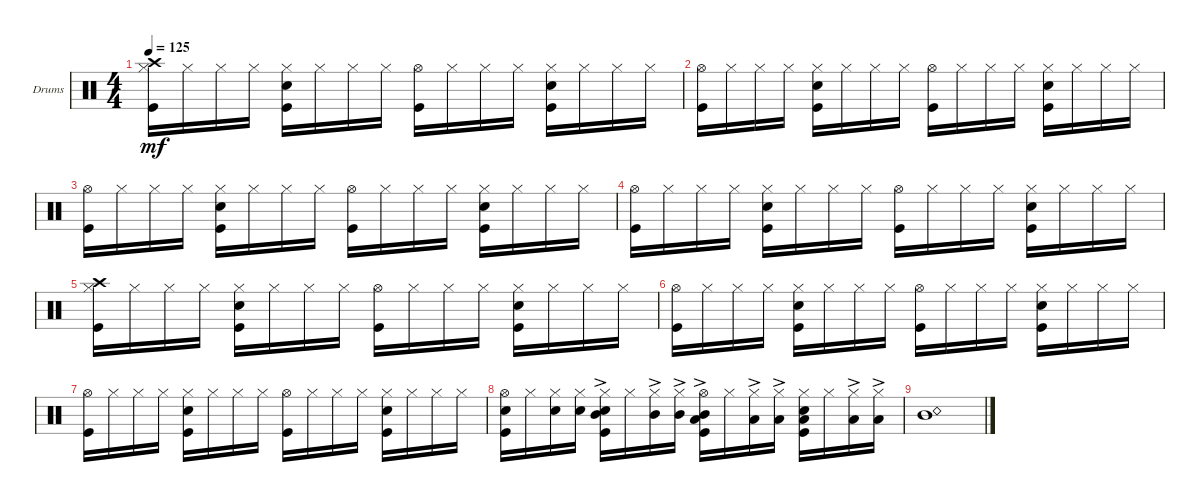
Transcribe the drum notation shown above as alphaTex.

\defaultSystemsLayout 4
\bracketExtendMode groupsimilarinstruments
\firstSystemTrackNameOrientation horizontal
\otherSystemsTrackNameOrientation horizontal
\track ("Drumkit" "Drums") {instrument percussion}
\staff {score}
\articulation defaults
\ts (4 4)
\tempo 125
\clef neutral
\ks c
("Hi-Hat (closed)" "Kick (hit)" "Crash high (hit)").16{dy mf} "Hi-Hat (closed)".16 "Hi-Hat (closed)".16 "Hi-Hat (closed)".16 ("Hi-Hat (closed)" "Kick (hit)" "Snare (hit) 2").16 "Hi-Hat (closed)".16 "Hi-Hat (closed)".16 "Hi-Hat (closed)".16 ("Hi-Hat (open)" "Kick (hit)").16 "Hi-Hat (closed)".16 "Hi-Hat (closed)".16 "Hi-Hat (closed)".16 ("Hi-Hat (closed)" "Kick (hit)" "Snare (hit) 2").16 "Hi-Hat (closed)".16 "Hi-Hat (closed)".16 "Hi-Hat (closed)".16 |
("Hi-Hat (open)" "Kick (hit)").16 "Hi-Hat (closed)".16 "Hi-Hat (closed)".16 "Hi-Hat (closed)".16 ("Hi-Hat (closed)" "Kick (hit)" "Snare (hit) 2").16 "Hi-Hat (closed)".16 "Hi-Hat (closed)".16 "Hi-Hat (closed)".16 ("Hi-Hat (open)" "Kick (hit)").16 "Hi-Hat (closed)".16 "Hi-Hat (closed)".16 "Hi-Hat (closed)".16 ("Hi-Hat (closed)" "Kick (hit)" "Snare (hit) 2").16 "Hi-Hat (closed)".16 "Hi-Hat (closed)".16 "Hi-Hat (closed)".16 |
("Hi-Hat (open)" "Kick (hit)").16 "Hi-Hat (closed)".16 "Hi-Hat (closed)".16 "Hi-Hat (closed)".16 ("Hi-Hat (closed)" "Kick (hit)" "Snare (hit) 2").16 "Hi-Hat (closed)".16 "Hi-Hat (closed)".16 "Hi-Hat (closed)".16 ("Hi-Hat (open)" "Kick (hit)").16 "Hi-Hat (closed)".16 "Hi-Hat (closed)".16 "Hi-Hat (closed)".16 ("Hi-Hat (closed)" "Kick (hit)" "Snare (hit) 2").16 "Hi-Hat (closed)".16 "Hi-Hat (closed)".16 "Hi-Hat (closed)".16 |
("Hi-Hat (open)" "Kick (hit)").16 "Hi-Hat (closed)".16 "Hi-Hat (closed)".16 "Hi-Hat (closed)".16 ("Hi-Hat (closed)" "Kick (hit)" "Snare (hit) 2").16 "Hi-Hat (closed)".16 "Hi-Hat (closed)".16 "Hi-Hat (closed)".16 ("Hi-Hat (open)" "Kick (hit)").16 "Hi-Hat (closed)".16 "Hi-Hat (closed)".16 "Hi-Hat (closed)".16 ("Hi-Hat (closed)" "Kick (hit)" "Snare (hit) 2").16 "Hi-Hat (closed)".16 "Hi-Hat (closed)".16 "Hi-Hat (closed)".16 |
("Hi-Hat (closed)" "Kick (hit)" "Crash high (hit)").16 "Hi-Hat (closed)".16 "Hi-Hat (closed)".16 "Hi-Hat (closed)".16 ("Hi-Hat (closed)" "Kick (hit)" "Snare (hit) 2").16 "Hi-Hat (closed)".16 "Hi-Hat (closed)".16 "Hi-Hat (closed)".16 ("Hi-Hat (open)" "Kick (hit)").16 "Hi-Hat (closed)".16 "Hi-Hat (closed)".16 "Hi-Hat (closed)".16 ("Hi-Hat (closed)" "Kick (hit)" "Snare (hit) 2").16 "Hi-Hat (closed)".16 "Hi-Hat (closed)".16 "Hi-Hat (closed)".16 |
("Hi-Hat (open)" "Kick (hit)").16 "Hi-Hat (closed)".16 "Hi-Hat (closed)".16 "Hi-Hat (closed)".16 ("Hi-Hat (closed)" "Kick (hit)" "Snare (hit) 2").16 "Hi-Hat (closed)".16 "Hi-Hat (closed)".16 "Hi-Hat (closed)".16 ("Hi-Hat (open)" "Kick (hit)").16 "Hi-Hat (closed)".16 "Hi-Hat (closed)".16 "Hi-Hat (closed)".16 ("Hi-Hat (closed)" "Kick (hit)" "Snare (hit) 2").16 "Hi-Hat (closed)".16 "Hi-Hat (closed)".16 "Hi-Hat (closed)".16 |
("Hi-Hat (open)" "Kick (hit)").16 "Hi-Hat (closed)".16 "Hi-Hat (closed)".16 "Hi-Hat (closed)".16 ("Hi-Hat (closed)" "Kick (hit)" "Snare (hit) 2").16 "Hi-Hat (closed)".16 "Hi-Hat (closed)".16 "Hi-Hat (closed)".16 ("Hi-Hat (open)" "Kick (hit)").16 "Hi-Hat (closed)".16 "Hi-Hat (closed)".16 "Hi-Hat (closed)".16 ("Hi-Hat (closed)" "Kick (hit)" "Snare (hit) 2").16 "Hi-Hat (closed)".16 "Hi-Hat (closed)".16 "Hi-Hat (closed)".16 |
("Hi-Hat (open)" "Kick (hit)" "Snare (hit) 2").16 "Hi-Hat (closed)".16 ("Hi-Hat (closed)" "Snare (hit) 2").16 ("Hi-Hat (closed)" "Snare (hit) 2").16 ("Hi-Hat (closed)" "Kick (hit)" "Snare (hit) 2" "Mid Tom (hit)"{ac}).16 "Hi-Hat (closed)".16 ("Hi-Hat (closed)" "Mid Tom (hit)"{ac}).16 ("Hi-Hat (closed)" "Mid Tom (hit)"{ac}).16 ("Hi-Hat (open)" "Kick (hit)" "Mid Tom (hit)" "Low Tom (hit)"{ac}).16 "Hi-Hat (closed)".16 ("Hi-Hat (closed)" "Low Tom (hit)"{ac}).16 ("Hi-Hat (closed)" "Low Tom (hit)"{ac}).16 ("Hi-Hat (closed)" "Kick (hit)" "Snare (hit) 2" "Low Tom (hit)").16 "Hi-Hat (closed)".16 ("Hi-Hat (closed)" "Low Tom (hit)"{ac}).16 ("Hi-Hat (closed)" "Low Tom (hit)"{ac}).16 |
("Mid Tom (hit)" "Snare (rim shot)").1
